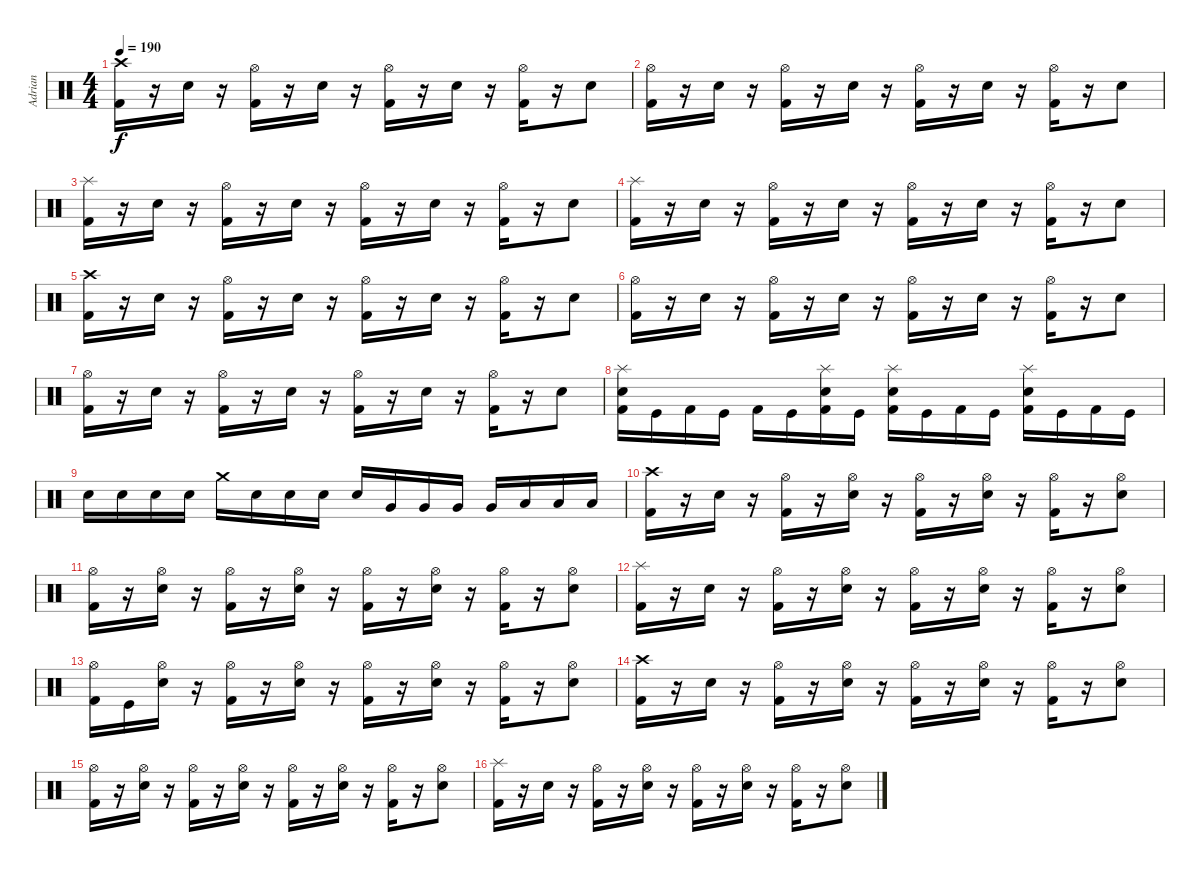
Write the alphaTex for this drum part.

\track ("Adrian" "Adrian") {instrument percussion}
\staff {score}
\articulation defaults
\ts (4 4)
\tempo 190
\clef neutral
\ks c
("Crash high (hit)" "Kick (hit) 2").16{dy f} r.16 "Electric Snare (hit)".16 r.16 ("Hi-Hat (open)" "Kick (hit) 2").16 r.16 "Electric Snare (hit)".16 r.16 ("Hi-Hat (open)" "Kick (hit) 2").16 r.16 "Electric Snare (hit)".16 r.16 ("Hi-Hat (open)" "Kick (hit) 2").16 r.16 "Electric Snare (hit)".8 |
("Hi-Hat (open)" "Kick (hit) 2").16 r.16 "Electric Snare (hit)".16 r.16 ("Hi-Hat (open)" "Kick (hit) 2").16 r.16 "Electric Snare (hit)".16 r.16 ("Hi-Hat (open)" "Kick (hit) 2").16 r.16 "Electric Snare (hit)".16 r.16 ("Hi-Hat (open)" "Kick (hit) 2").16 r.16 "Electric Snare (hit)".8 |
("Splash (hit)" "Kick (hit) 2").16 r.16 "Electric Snare (hit)".16 r.16 ("Hi-Hat (open)" "Kick (hit) 2").16 r.16 "Electric Snare (hit)".16 r.16 ("Hi-Hat (open)" "Kick (hit) 2").16 r.16 "Electric Snare (hit)".16 r.16 ("Hi-Hat (open)" "Kick (hit) 2").16 r.16 "Electric Snare (hit)".8 |
("Splash (hit)" "Kick (hit) 2").16 r.16 "Electric Snare (hit)".16 r.16 ("Hi-Hat (open)" "Kick (hit) 2").16 r.16 "Electric Snare (hit)".16 r.16 ("Hi-Hat (open)" "Kick (hit) 2").16 r.16 "Electric Snare (hit)".16 r.16 ("Hi-Hat (open)" "Kick (hit) 2").16 r.16 "Electric Snare (hit)".8 |
("Crash high (hit)" "Kick (hit) 2").16 r.16 "Electric Snare (hit)".16 r.16 ("Hi-Hat (open)" "Kick (hit) 2").16 r.16 "Electric Snare (hit)".16 r.16 ("Hi-Hat (open)" "Kick (hit) 2").16 r.16 "Electric Snare (hit)".16 r.16 ("Hi-Hat (open)" "Kick (hit) 2").16 r.16 "Electric Snare (hit)".8 |
("Hi-Hat (open)" "Kick (hit) 2").16 r.16 "Electric Snare (hit)".16 r.16 ("Hi-Hat (open)" "Kick (hit) 2").16 r.16 "Electric Snare (hit)".16 r.16 ("Hi-Hat (open)" "Kick (hit) 2").16 r.16 "Electric Snare (hit)".16 r.16 ("Hi-Hat (open)" "Kick (hit) 2").16 r.16 "Electric Snare (hit)".8 |
("Hi-Hat (open)" "Kick (hit) 2").16 r.16 "Electric Snare (hit)".16 r.16 ("Hi-Hat (open)" "Kick (hit) 2").16 r.16 "Electric Snare (hit)".16 r.16 ("Hi-Hat (open)" "Kick (hit) 2").16 r.16 "Electric Snare (hit)".16 r.16 ("Hi-Hat (open)" "Kick (hit) 2").16 r.16 "Electric Snare (hit)".8 |
("Splash (hit)" "Electric Snare (hit)" "Kick (hit) 2").16 "Kick (hit)".16 "Kick (hit) 2".16 "Kick (hit)".16 "Kick (hit) 2".16 "Kick (hit)".16 ("Splash (hit)" "Electric Snare (hit)" "Kick (hit) 2").16 "Kick (hit)".16 ("Splash (hit)" "Electric Snare (hit)" "Kick (hit) 2").16 "Kick (hit)".16 "Kick (hit) 2".16 "Kick (hit)".16 ("Splash (hit)" "Electric Snare (hit)" "Kick (hit) 2").16 "Kick (hit)".16 "Kick (hit) 2".16 "Kick (hit)".16 |
"Electric Snare (hit)".16 "Electric Snare (hit)".16 "Electric Snare (hit)".16 "Electric Snare (hit)".16 "Crash medium (hit)".16 "Electric Snare (hit)".16 "Electric Snare (hit)".16 "Electric Snare (hit)".16 "Electric Snare (hit)".16 "Very Low Tom (hit)".16 "Very Low Tom (hit)".16 "Very Low Tom (hit)".16 "Very Low Tom (hit)".16 "Low Floor Tom (hit)".16 "Low Floor Tom (hit)".16 "Low Floor Tom (hit)".16 |
("Crash high (hit)" "Kick (hit) 2").16 r.16 "Electric Snare (hit)".16 r.16 ("Hi-Hat (open)" "Kick (hit) 2").16 r.16 ("Hi-Hat (open)" "Electric Snare (hit)").16 r.16 ("Hi-Hat (open)" "Kick (hit) 2").16 r.16 ("Hi-Hat (open)" "Electric Snare (hit)").16 r.16 ("Hi-Hat (open)" "Kick (hit) 2").16 r.16 ("Hi-Hat (open)" "Electric Snare (hit)").8 |
("Hi-Hat (open)" "Kick (hit) 2").16 r.16 ("Hi-Hat (open)" "Electric Snare (hit)").16 r.16 ("Hi-Hat (open)" "Kick (hit) 2").16 r.16 ("Hi-Hat (open)" "Electric Snare (hit)").16 r.16 ("Hi-Hat (open)" "Kick (hit) 2").16 r.16 ("Hi-Hat (open)" "Electric Snare (hit)").16 r.16 ("Hi-Hat (open)" "Kick (hit) 2").16 r.16 ("Hi-Hat (open)" "Electric Snare (hit)").8 |
("Splash (hit)" "Kick (hit) 2").16 r.16 "Electric Snare (hit)".16 r.16 ("Hi-Hat (open)" "Kick (hit) 2").16 r.16 ("Hi-Hat (open)" "Electric Snare (hit)").16 r.16 ("Hi-Hat (open)" "Kick (hit) 2").16 r.16 ("Hi-Hat (open)" "Electric Snare (hit)").16 r.16 ("Hi-Hat (open)" "Kick (hit) 2").16 r.16 ("Hi-Hat (open)" "Electric Snare (hit)").8 |
("Hi-Hat (open)" "Kick (hit) 2").16 "Kick (hit)".16 ("Hi-Hat (open)" "Electric Snare (hit)").16 r.16 ("Hi-Hat (open)" "Kick (hit) 2").16 r.16 ("Hi-Hat (open)" "Electric Snare (hit)").16 r.16 ("Hi-Hat (open)" "Kick (hit) 2").16 r.16 ("Hi-Hat (open)" "Electric Snare (hit)").16 r.16 ("Hi-Hat (open)" "Kick (hit) 2").16 r.16 ("Hi-Hat (open)" "Electric Snare (hit)").8 |
("Crash high (hit)" "Kick (hit) 2").16 r.16 "Electric Snare (hit)".16 r.16 ("Hi-Hat (open)" "Kick (hit) 2").16 r.16 ("Hi-Hat (open)" "Electric Snare (hit)").16 r.16 ("Hi-Hat (open)" "Kick (hit) 2").16 r.16 ("Hi-Hat (open)" "Electric Snare (hit)").16 r.16 ("Hi-Hat (open)" "Kick (hit) 2").16 r.16 ("Hi-Hat (open)" "Electric Snare (hit)").8 |
("Hi-Hat (open)" "Kick (hit) 2").16 r.16 ("Hi-Hat (open)" "Electric Snare (hit)").16 r.16 ("Hi-Hat (open)" "Kick (hit) 2").16 r.16 ("Hi-Hat (open)" "Electric Snare (hit)").16 r.16 ("Hi-Hat (open)" "Kick (hit) 2").16 r.16 ("Hi-Hat (open)" "Electric Snare (hit)").16 r.16 ("Hi-Hat (open)" "Kick (hit) 2").16 r.16 ("Hi-Hat (open)" "Electric Snare (hit)").8 |
("Splash (hit)" "Kick (hit) 2").16 r.16 "Electric Snare (hit)".16 r.16 ("Hi-Hat (open)" "Kick (hit) 2").16 r.16 ("Hi-Hat (open)" "Electric Snare (hit)").16 r.16 ("Hi-Hat (open)" "Kick (hit) 2").16 r.16 ("Hi-Hat (open)" "Electric Snare (hit)").16 r.16 ("Hi-Hat (open)" "Kick (hit) 2").16 r.16 ("Hi-Hat (open)" "Electric Snare (hit)").8
